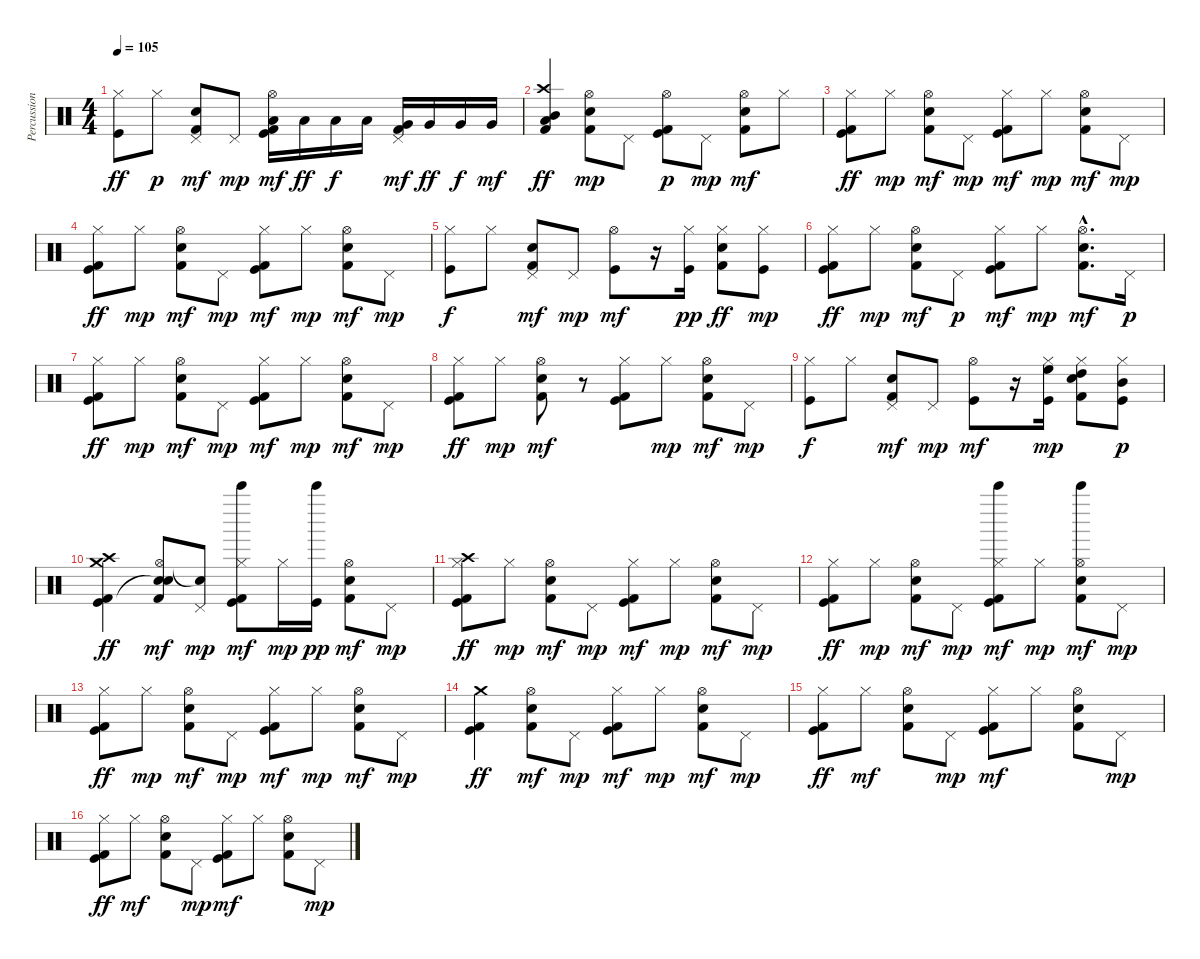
\track ("Percussion" "Percussion") {instrument percussion}
\staff {score}
\articulation defaults
\ts (4 4)
\tempo 105
\clef neutral
\ks c
("Hi-Hat (closed)" "Kick (hit)").8{dy ff} "Hi-Hat (closed)".8{dy p} ("Electric Snare (hit)" "Pedal Hi-Hat (hit)" "Kick (hit) 2").8{dy mf} "Pedal Hi-Hat (hit)".8{dy mp} ("Low Tom (hit)" "Hi-Hat (open)" "Kick (hit)" "Kick (hit) 2").16{dy mf} "Low Tom (hit)".16{dy ff} "Low Tom (hit)".16{dy f} "Low Tom (hit)".16 ("Very Low Tom (hit)" "Pedal Hi-Hat (hit)" "Kick (hit) 2").16{dy mf} "Very Low Tom (hit)".16{dy ff} "Very Low Tom (hit)".16{dy f} "Very Low Tom (hit)".16{dy mf} |
("Crash high (hit)" "Mid Tom (hit)" "Low Floor Tom (hit)" "Kick (hit) 2").4{dy ff} ("Electric Snare (hit)" "Hi-Hat (open)" "Kick (hit) 2").8{dy mp} "Pedal Hi-Hat (hit)".8 ("Hi-Hat (open)" "Kick (hit)" "Kick (hit) 2").8{dy p} "Pedal Hi-Hat (hit)".8{dy mp} ("Electric Snare (hit)" "Hi-Hat (open)" "Kick (hit) 2").8{dy mf} "Hi-Hat (closed)".8 |
("Hi-Hat (closed)" "Kick (hit)" "Kick (hit) 2").8{dy ff} "Hi-Hat (closed)".8{dy mp} ("Electric Snare (hit)" "Hi-Hat (open)" "Kick (hit) 2").8{dy mf} "Pedal Hi-Hat (hit)".8{dy mp} ("Hi-Hat (closed)" "Kick (hit)" "Kick (hit) 2").8{dy mf} "Hi-Hat (closed)".8{dy mp} ("Electric Snare (hit)" "Hi-Hat (open)" "Kick (hit) 2").8{dy mf} "Pedal Hi-Hat (hit)".8{dy mp} |
("Hi-Hat (closed)" "Kick (hit)" "Kick (hit) 2").8{dy ff} "Hi-Hat (closed)".8{dy mp} ("Electric Snare (hit)" "Hi-Hat (open)" "Kick (hit) 2").8{dy mf} "Pedal Hi-Hat (hit)".8{dy mp} ("Hi-Hat (closed)" "Kick (hit)" "Kick (hit) 2").8{dy mf} "Hi-Hat (closed)".8{dy mp} ("Electric Snare (hit)" "Hi-Hat (open)" "Kick (hit) 2").8{dy mf} "Pedal Hi-Hat (hit)".8{dy mp} |
("Hi-Hat (closed)" "Kick (hit)").8{dy f} "Hi-Hat (closed)".8 ("Electric Snare (hit)" "Pedal Hi-Hat (hit)" "Kick (hit) 2").8{dy mf} "Pedal Hi-Hat (hit)".8{dy mp} ("Hi-Hat (open)" "Kick (hit)").8{dy mf} r.16 ("Hi-Hat (closed)" "Kick (hit)").16{dy pp} ("Electric Snare (hit)" "Hi-Hat (closed)" "Kick (hit) 2").8{dy ff} ("Hi-Hat (closed)" "Kick (hit)").8{dy mp} |
("Hi-Hat (closed)" "Kick (hit)" "Kick (hit) 2").8{dy ff} "Hi-Hat (closed)".8{dy mp} ("Electric Snare (hit)" "Hi-Hat (open)" "Kick (hit) 2").8{dy mf} "Pedal Hi-Hat (hit)".8{dy p} ("Hi-Hat (closed)" "Kick (hit)" "Kick (hit) 2").8{dy mf} "Hi-Hat (closed)".8{dy mp} ("Electric Snare (hit)"{hac} "Hi-Hat (open)"{hac} "Kick (hit) 2"{hac}).8{d dy mf} "Pedal Hi-Hat (hit)".16{dy p} |
("Hi-Hat (closed)" "Kick (hit)" "Kick (hit) 2").8{dy ff} "Hi-Hat (closed)".8{dy mp} ("Electric Snare (hit)" "Hi-Hat (open)" "Kick (hit) 2").8{dy mf} "Pedal Hi-Hat (hit)".8{dy mp} ("Hi-Hat (closed)" "Kick (hit)" "Kick (hit) 2").8{dy mf} "Hi-Hat (closed)".8{dy mp} ("Electric Snare (hit)" "Hi-Hat (open)" "Kick (hit) 2").8{dy mf} "Pedal Hi-Hat (hit)".8{dy mp} |
("Hi-Hat (closed)" "Kick (hit)" "Kick (hit) 2").8{dy ff} "Hi-Hat (closed)".8{dy mp} ("Electric Snare (hit)" "Hi-Hat (open)" "Kick (hit) 2").8{dy mf} r.8 ("Hi-Hat (closed)" "Kick (hit)" "Kick (hit) 2").8 "Hi-Hat (closed)".8{dy mp} ("Electric Snare (hit)" "Hi-Hat (open)" "Kick (hit) 2").8{dy mf} "Pedal Hi-Hat (hit)".8{dy mp} |
("Hi-Hat (closed)" "Kick (hit)").8{dy f} "Hi-Hat (closed)".8 ("Electric Snare (hit)" "Pedal Hi-Hat (hit)" "Kick (hit) 2").8{dy mf} "Pedal Hi-Hat (hit)".8{dy mp} ("Hi-Hat (open)" "Kick (hit)").8{dy mf} r.16 ("Hi-Hat (closed)" "High Floor Tom (hit)" "Kick (hit)").16{dy mp} ("Electric Snare (hit)" "Hi-Hat (closed)" "High Tom (hit)" "Kick (hit) 2").8 ("Hi-Hat (closed)" "Mid Tom (hit)" "Kick (hit)").8{dy p} |
("Crash high (hit)" "Crash medium (hit)" "Kick (hit)" "Kick (hit) 2").4{dy ff} ("Electric Snare (hit)" "Hi-Hat (open)" "Snare (hit)"{t} "Kick (hit) 2").8{dy mf} ("Pedal Hi-Hat (hit)" "Snare (hit)"{t}).8{dy mp} ("Bell Tree (hit)" "Hi-Hat (closed)" "Kick (hit)" "Kick (hit) 2").8{dy mf} "Hi-Hat (closed)".16{dy mp} ("Bell Tree (hit)" "Kick (hit)").16{dy pp} ("Electric Snare (hit)" "Hi-Hat (open)" "Kick (hit) 2").8{dy mf} "Pedal Hi-Hat (hit)".8{dy mp} |
("Crash high (hit)" "Hi-Hat (closed)" "Kick (hit)" "Kick (hit) 2").8{dy ff} "Hi-Hat (closed)".8{dy mp} ("Electric Snare (hit)" "Hi-Hat (open)" "Kick (hit) 2").8{dy mf} "Pedal Hi-Hat (hit)".8{dy mp} ("Hi-Hat (closed)" "Kick (hit)" "Kick (hit) 2").8{dy mf} "Hi-Hat (closed)".8{dy mp} ("Electric Snare (hit)" "Hi-Hat (open)" "Kick (hit) 2").8{dy mf} "Pedal Hi-Hat (hit)".8{dy mp} |
("Hi-Hat (closed)" "Kick (hit)" "Kick (hit) 2").8{dy ff} "Hi-Hat (closed)".8{dy mp} ("Electric Snare (hit)" "Hi-Hat (open)" "Kick (hit) 2").8{dy mf} "Pedal Hi-Hat (hit)".8{dy mp} ("Bell Tree (hit)" "Hi-Hat (closed)" "Kick (hit)" "Kick (hit) 2").8{dy mf} "Hi-Hat (closed)".8{dy mp} ("Electric Snare (hit)" "Hi-Hat (open)" "Bell Tree (hit)" "Kick (hit) 2").8{dy mf} "Pedal Hi-Hat (hit)".8{dy mp} |
("Hi-Hat (closed)" "Kick (hit)" "Kick (hit) 2").8{dy ff} "Hi-Hat (closed)".8{dy mp} ("Electric Snare (hit)" "Hi-Hat (open)" "Kick (hit) 2").8{dy mf} "Pedal Hi-Hat (hit)".8{dy mp} ("Hi-Hat (closed)" "Kick (hit)" "Kick (hit) 2").8{dy mf} "Hi-Hat (closed)".8{dy mp} ("Electric Snare (hit)" "Hi-Hat (open)" "Kick (hit) 2").8{dy mf} "Pedal Hi-Hat (hit)".8{dy mp} |
("Crash medium (hit)" "Kick (hit)" "Kick (hit) 2").4{dy ff} ("Electric Snare (hit)" "Hi-Hat (open)" "Kick (hit) 2").8{dy mf} "Pedal Hi-Hat (hit)".8{dy mp} ("Hi-Hat (closed)" "Kick (hit)" "Kick (hit) 2").8{dy mf} "Hi-Hat (closed)".8{dy mp} ("Electric Snare (hit)" "Hi-Hat (open)" "Kick (hit) 2").8{dy mf} "Pedal Hi-Hat (hit)".8{dy mp} |
("Hi-Hat (closed)" "Kick (hit)" "Kick (hit) 2").8{dy ff} "Hi-Hat (closed)".8{dy mf} ("Electric Snare (hit)" "Hi-Hat (open)" "Kick (hit) 2").8 "Pedal Hi-Hat (hit)".8{dy mp} ("Hi-Hat (closed)" "Kick (hit)" "Kick (hit) 2").8{dy mf} "Hi-Hat (closed)".8 ("Electric Snare (hit)" "Hi-Hat (open)" "Kick (hit) 2").8 "Pedal Hi-Hat (hit)".8{dy mp} |
("Hi-Hat (closed)" "Kick (hit)" "Kick (hit) 2").8{dy ff} "Hi-Hat (closed)".8{dy mf} ("Electric Snare (hit)" "Hi-Hat (open)" "Kick (hit) 2").8 "Pedal Hi-Hat (hit)".8{dy mp} ("Hi-Hat (closed)" "Kick (hit)" "Kick (hit) 2").8{dy mf} "Hi-Hat (closed)".8 ("Electric Snare (hit)" "Hi-Hat (open)" "Kick (hit) 2").8 "Pedal Hi-Hat (hit)".8{dy mp}
